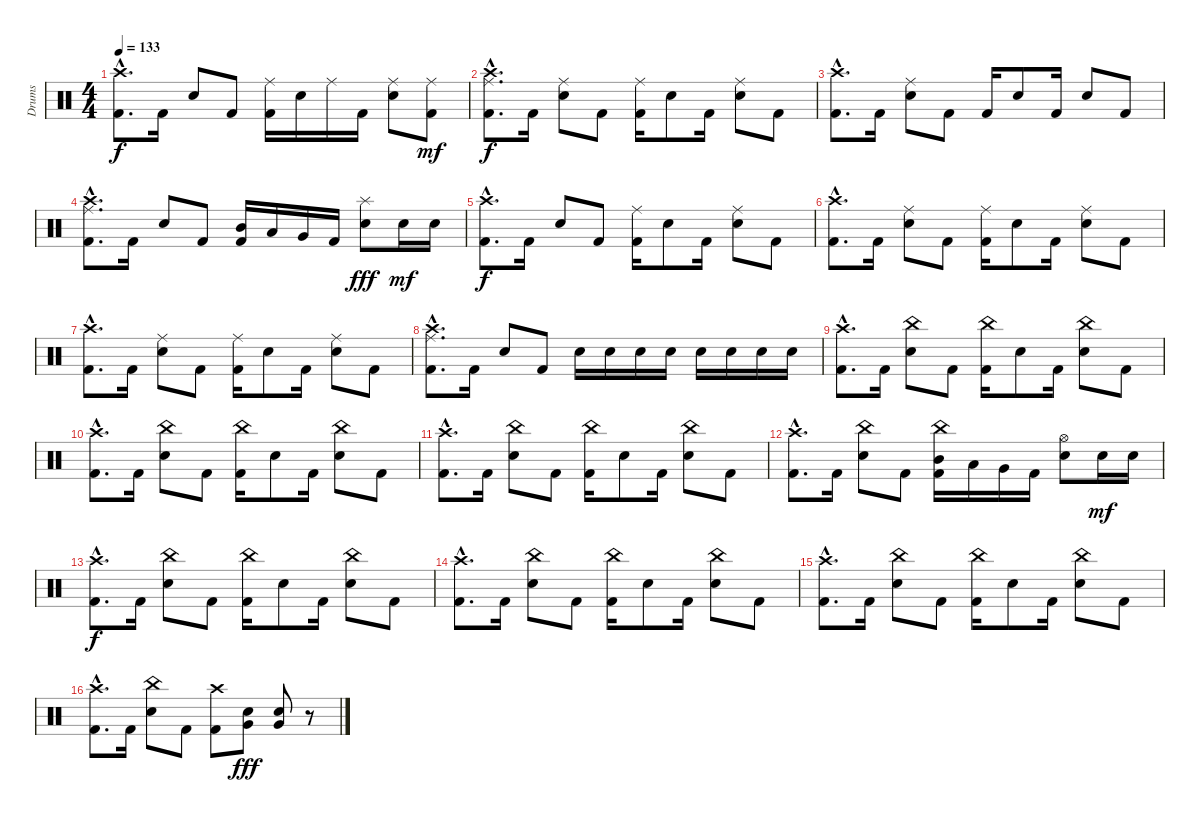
\track ("Drums" "Drums") {instrument percussion}
\staff {score}
\articulation defaults
\ts (4 4)
\tempo 133
\clef neutral
\ks c
("Crash high (hit)"{hac} "Kick (hit) 2"{hac}).8{d dy f} "Kick (hit) 2".16 "Snare (hit) 2".8 "Kick (hit) 2".8 ("Ride (middle)" "Kick (hit) 2").16 "Snare (hit) 2".16 "Ride (middle)".16 "Kick (hit) 2".16 ("Ride (middle)" "Snare (hit) 2").8 ("Ride (middle)" "Kick (hit) 2").8{dy mf} |
("Crash high (hit)"{hac} "Ride (middle)"{hac} "Kick (hit) 2"{hac}).8{d dy f} "Kick (hit) 2".16 ("Ride (middle)" "Snare (hit) 2").8 "Kick (hit) 2".8 ("Ride (middle)" "Kick (hit) 2").16 "Snare (hit) 2".8 "Kick (hit) 2".16 ("Ride (middle)" "Snare (hit) 2").8 "Kick (hit) 2".8 |
("Crash high (hit)"{hac} "Kick (hit) 2"{hac}).8{d} "Kick (hit) 2".16 ("Ride (middle)" "Snare (hit) 2").8 "Kick (hit) 2".8 "Kick (hit) 2".16 "Snare (hit) 2".8 "Kick (hit) 2".16 "Snare (hit) 2".8 "Kick (hit) 2".8 |
("Crash high (hit)"{hac} "Ride (middle)"{hac} "Kick (hit) 2"{hac}).8{d} "Kick (hit) 2".16 "Snare (hit) 2".8 "Kick (hit) 2".8 ("Mid Tom (hit)" "Kick (hit) 2").16 "Low Tom (hit)".16 "Very Low Tom (hit)".16 "Kick (hit) 2".16 ("Splash (hit)" "Snare (hit) 2").8{dy fff} "Snare (hit) 2".16{dy mf} "Snare (hit) 2".16 |
("Crash high (hit)"{hac} "Kick (hit) 2"{hac}).8{d dy f} "Kick (hit) 2".16 "Snare (hit) 2".8 "Kick (hit) 2".8 ("Ride (middle)" "Kick (hit) 2").16 "Snare (hit) 2".8 "Kick (hit) 2".16 ("Ride (middle)" "Snare (hit) 2").8 "Kick (hit) 2".8 |
("Crash high (hit)"{hac} "Kick (hit) 2"{hac}).8{d} "Kick (hit) 2".16 ("Ride (middle)" "Snare (hit) 2").8 "Kick (hit) 2".8 ("Ride (middle)" "Kick (hit) 2").16 "Snare (hit) 2".8 "Kick (hit) 2".16 ("Ride (middle)" "Snare (hit) 2").8 "Kick (hit) 2".8 |
("Crash high (hit)"{hac} "Kick (hit) 2"{hac}).8{d} "Kick (hit) 2".16 ("Ride (middle)" "Snare (hit) 2").8 "Kick (hit) 2".8 ("Ride (middle)" "Kick (hit) 2").16 "Snare (hit) 2".8 "Kick (hit) 2".16 ("Ride (middle)" "Snare (hit) 2").8 "Kick (hit) 2".8 |
("Crash high (hit)"{hac} "Ride (middle)"{hac} "Kick (hit) 2"{hac}).8{d} "Kick (hit) 2".16 "Snare (hit) 2".8 "Kick (hit) 2".8 "Snare (hit) 2".16 "Snare (hit) 2".16 "Snare (hit) 2".16 "Snare (hit) 2".16 "Snare (hit) 2".16 "Snare (hit) 2".16 "Snare (hit) 2".16 "Snare (hit) 2".16 |
("Crash high (hit)"{hac} "Kick (hit) 2"{hac}).8{d} "Kick (hit) 2".16 ("China (hit)" "Snare (hit) 2").8 "Kick (hit) 2".8 ("China (hit)" "Kick (hit) 2").16 "Snare (hit) 2".8 "Kick (hit) 2".16 ("China (hit)" "Snare (hit) 2").8 "Kick (hit) 2".8 |
("Crash high (hit)"{hac} "Kick (hit) 2"{hac}).8{d} "Kick (hit) 2".16 ("China (hit)" "Snare (hit) 2").8 "Kick (hit) 2".8 ("China (hit)" "Kick (hit) 2").16 "Snare (hit) 2".8 "Kick (hit) 2".16 ("China (hit)" "Snare (hit) 2").8 "Kick (hit) 2".8 |
("Crash high (hit)"{hac} "Kick (hit) 2"{hac}).8{d} "Kick (hit) 2".16 ("China (hit)" "Snare (hit) 2").8 "Kick (hit) 2".8 ("China (hit)" "Kick (hit) 2").16 "Snare (hit) 2".8 "Kick (hit) 2".16 ("China (hit)" "Snare (hit) 2").8 "Kick (hit) 2".8 |
("Crash high (hit)"{hac} "Kick (hit) 2"{hac}).8{d} "Kick (hit) 2".16 ("China (hit)" "Snare (hit) 2").8 "Kick (hit) 2".8 ("China (hit)" "Mid Tom (hit)" "Kick (hit) 2").16 "Low Tom (hit)".16 "Very Low Tom (hit)".16 "Kick (hit) 2".16 ("Hi-Hat (open)" "Snare (hit) 2").8 "Snare (hit) 2".16{dy mf} "Snare (hit) 2".16 |
("Crash high (hit)"{hac} "Kick (hit) 2"{hac}).8{d dy f} "Kick (hit) 2".16 ("China (hit)" "Snare (hit) 2").8 "Kick (hit) 2".8 ("China (hit)" "Kick (hit) 2").16 "Snare (hit) 2".8 "Kick (hit) 2".16 ("China (hit)" "Snare (hit) 2").8 "Kick (hit) 2".8 |
("Crash high (hit)"{hac} "Kick (hit) 2"{hac}).8{d} "Kick (hit) 2".16 ("China (hit)" "Snare (hit) 2").8 "Kick (hit) 2".8 ("China (hit)" "Kick (hit) 2").16 "Snare (hit) 2".8 "Kick (hit) 2".16 ("China (hit)" "Snare (hit) 2").8 "Kick (hit) 2".8 |
("Crash high (hit)"{hac} "Kick (hit) 2"{hac}).8{d} "Kick (hit) 2".16 ("China (hit)" "Snare (hit) 2").8 "Kick (hit) 2".8 ("China (hit)" "Kick (hit) 2").16 "Snare (hit) 2".8 "Kick (hit) 2".16 ("China (hit)" "Snare (hit) 2").8 "Kick (hit) 2".8 |
("Crash high (hit)"{hac} "Kick (hit) 2"{hac}).8{d} "Kick (hit) 2".16 ("China (hit)" "Snare (hit) 2").8 "Kick (hit) 2".8 ("Crash high (hit)" "Kick (hit) 2").8 ("Very Low Tom (hit)" "Snare (hit) 2").8{dy fff} ("Very Low Tom (hit)" "Snare (hit) 2").8 r.8
